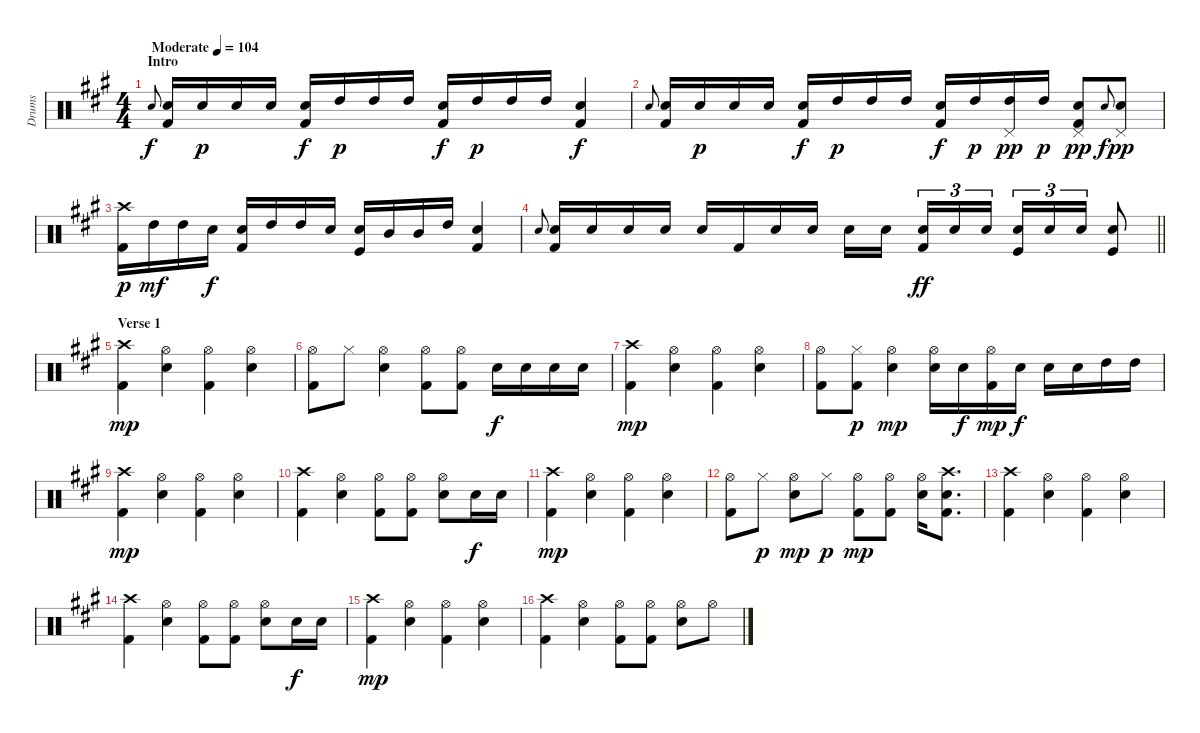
\track ("Drums" "Drums") {instrument percussion}
\staff {score}
\articulation defaults
\ts (4 4)
\section ("" "Intro")
\tempo (104 "Moderate")
\clef neutral
\ks a "Electric Snare (hit)".8{gr onbeat dy f}
("Electric Snare (hit)" "Kick (hit) 2").16 "Electric Snare (hit)".16{dy p} "Electric Snare (hit)".16 "Electric Snare (hit)".16 ("Electric Snare (hit)" "Kick (hit) 2").16{dy f} "High Tom (hit)".16{dy p} "High Tom (hit)".16 "High Tom (hit)".16 ("Kick (hit) 2" "Electric Snare (hit)").16{dy f} "High Tom (hit)".16{dy p} "High Tom (hit)".16 "High Tom (hit)".16 ("Kick (hit) 2" "Electric Snare (hit)").4{dy f} |
"Electric Snare (hit)".8{gr onbeat} ("Electric Snare (hit)" "Kick (hit) 2").16 "Electric Snare (hit)".16{dy p} "Electric Snare (hit)".16 "Electric Snare (hit)".16 ("Electric Snare (hit)" "Kick (hit) 2").16{dy f} "High Tom (hit)".16{dy p} "High Tom (hit)".16 "High Tom (hit)".16 ("Kick (hit) 2" "Electric Snare (hit)").16{dy f} "High Tom (hit)".16{dy p} ("High Tom (hit)" "Pedal Hi-Hat (hit)").16{dy pp} "High Tom (hit)".16{dy p} ("Kick (hit) 2" "Electric Snare (hit)" "Pedal Hi-Hat (hit)").8{dy pp} "Electric Snare (hit)".8{gr onbeat dy f} ("Electric Snare (hit)" "Pedal Hi-Hat (hit)").8{dy pp} |
("Crash high (hit)" "Kick (hit) 2").16{dy p} "High Tom (hit)".16{dy mf} "High Tom (hit)".16 "Electric Snare (hit)".16{dy f} ("Electric Snare (hit)" "Kick (hit) 2").16 "High Tom (hit)".16 "High Tom (hit)".16 "Electric Snare (hit)".16 ("Electric Snare (hit)" "Kick (hit)").16 "Mid Tom (hit)".16 "Mid Tom (hit)".16 "High Tom (hit)".16 ("Electric Snare (hit)" "Kick (hit) 2").4 |
\barLineRight lightlight "Electric Snare (hit)".8{gr onbeat}
("Electric Snare (hit)" "Kick (hit) 2").16 "Electric Snare (hit)".16 "Electric Snare (hit)".16 "Electric Snare (hit)".16 "Electric Snare (hit)".16 "Kick (hit) 2".16 "Electric Snare (hit)".16 "Electric Snare (hit)".16 "Electric Snare (hit)".16 "Electric Snare (hit)".16{beam splitsecondary} ("Electric Snare (hit)" "Kick (hit) 2").16{tu (3 2) dy ff} "Electric Snare (hit)".16{tu (3 2)} "Electric Snare (hit)".16{tu (3 2)} ("Electric Snare (hit)" "Kick (hit)").16{tu (3 2)} "Electric Snare (hit)".16{tu (3 2)} "Electric Snare (hit)".16{tu (3 2)} ("Electric Snare (hit)" "Kick (hit)").8 |
\section ("" "Verse 1")
("Kick (hit) 2" "Crash high (hit)").4{dy mp} ("Hi-Hat (open)" "Electric Snare (hit)").4 ("Hi-Hat (open)" "Kick (hit) 2").4 ("Hi-Hat (open)" "Electric Snare (hit)").4 |
("Hi-Hat (open)" "Kick (hit) 2").8 "Hi-Hat (closed)".8 ("Hi-Hat (open)" "Electric Snare (hit)").4 ("Hi-Hat (open)" "Kick (hit) 2").8 ("Hi-Hat (open)" "Kick (hit) 2").8 "Electric Snare (hit)".16{dy f} "Electric Snare (hit)".16 "Electric Snare (hit)".16 "Electric Snare (hit)".16 |
("Kick (hit) 2" "Crash high (hit)").4{dy mp} ("Hi-Hat (open)" "Electric Snare (hit)").4 ("Hi-Hat (open)" "Kick (hit) 2").4 ("Hi-Hat (open)" "Electric Snare (hit)").4 |
("Hi-Hat (open)" "Kick (hit) 2").8 ("Hi-Hat (closed)" "Kick (hit) 2").8{dy p} ("Hi-Hat (open)" "Electric Snare (hit)").4{dy mp} ("Hi-Hat (open)" "Electric Snare (hit)").16 "Electric Snare (hit)".16{dy f} ("Hi-Hat (open)" "Kick (hit) 2").16{dy mp} "Electric Snare (hit)".16{dy f} "Electric Snare (hit)".16 "Electric Snare (hit)".16 "High Tom (hit)".16 "High Tom (hit)".16 |
("Kick (hit) 2" "Crash high (hit)").4{dy mp} ("Hi-Hat (open)" "Electric Snare (hit)").4 ("Hi-Hat (open)" "Kick (hit) 2").4 ("Hi-Hat (open)" "Electric Snare (hit)").4 |
("Kick (hit) 2" "Crash high (hit)").4 ("Hi-Hat (open)" "Electric Snare (hit)").4 ("Hi-Hat (open)" "Kick (hit) 2").8 ("Hi-Hat (open)" "Kick (hit) 2").8 ("Hi-Hat (open)" "Electric Snare (hit)").8 "Electric Snare (hit)".16{dy f} "Electric Snare (hit)".16 |
("Kick (hit) 2" "Crash high (hit)").4{dy mp} ("Hi-Hat (open)" "Electric Snare (hit)").4 ("Hi-Hat (open)" "Kick (hit) 2").4 ("Hi-Hat (open)" "Electric Snare (hit)").4 |
("Hi-Hat (open)" "Kick (hit) 2").8 "Hi-Hat (closed)".8{dy p} ("Hi-Hat (open)" "Electric Snare (hit)").8{dy mp} "Hi-Hat (closed)".8{dy p} ("Hi-Hat (open)" "Kick (hit) 2").8{dy mp} ("Hi-Hat (open)" "Kick (hit) 2").8 ("Electric Snare (hit)" "Hi-Hat (open)").16 ("Electric Snare (hit)" "Kick (hit) 2" "Crash high (hit)").8{d} |
("Kick (hit) 2" "Crash high (hit)").4 ("Hi-Hat (open)" "Electric Snare (hit)").4 ("Hi-Hat (open)" "Kick (hit) 2").4 ("Hi-Hat (open)" "Electric Snare (hit)").4 |
("Kick (hit) 2" "Crash high (hit)").4 ("Hi-Hat (open)" "Electric Snare (hit)").4 ("Hi-Hat (open)" "Kick (hit) 2").8 ("Hi-Hat (open)" "Kick (hit) 2").8 ("Hi-Hat (open)" "Electric Snare (hit)").8 "Electric Snare (hit)".16{dy f} "Electric Snare (hit)".16 |
("Kick (hit) 2" "Crash high (hit)").4{dy mp} ("Hi-Hat (open)" "Electric Snare (hit)").4 ("Hi-Hat (open)" "Kick (hit) 2").4 ("Hi-Hat (open)" "Electric Snare (hit)").4 |
("Kick (hit) 2" "Crash high (hit)").4 ("Hi-Hat (open)" "Electric Snare (hit)").4 ("Hi-Hat (open)" "Kick (hit) 2").8 ("Hi-Hat (open)" "Kick (hit) 2").8 ("Hi-Hat (open)" "Electric Snare (hit)").8 "Hi-Hat (open)".8
